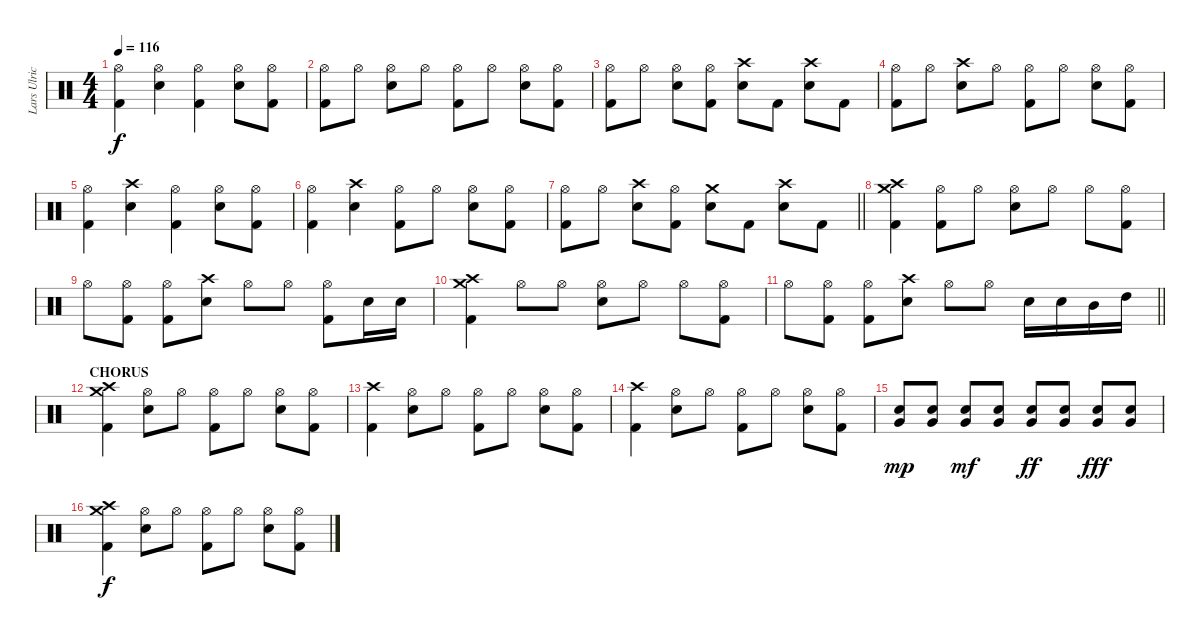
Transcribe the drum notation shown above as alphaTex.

\track ("Lars Ulrich - drums" "Lars Ulric") {instrument percussion}
\staff {score}
\articulation defaults
\ts (4 4)
\tempo 116
\clef neutral
\ks c
("Hi-Hat (open)" "Kick (hit) 2").4{dy f} ("Hi-Hat (open)" "Snare (hit) 2").4 ("Hi-Hat (open)" "Kick (hit) 2").4 ("Hi-Hat (open)" "Snare (hit) 2").8 ("Hi-Hat (open)" "Kick (hit) 2").8 |
("Hi-Hat (open)" "Kick (hit) 2").8 "Hi-Hat (open)".8 ("Hi-Hat (open)" "Snare (hit) 2").8 "Hi-Hat (open)".8 ("Hi-Hat (open)" "Kick (hit) 2").8 "Hi-Hat (open)".8 ("Hi-Hat (open)" "Snare (hit) 2").8 ("Hi-Hat (open)" "Kick (hit) 2").8 |
("Hi-Hat (open)" "Kick (hit) 2").8 "Hi-Hat (open)".8 ("Hi-Hat (open)" "Snare (hit) 2").8 ("Hi-Hat (open)" "Kick (hit) 2").8 ("Crash high (hit)" "Snare (hit) 2").8 "Kick (hit) 2".8 ("Crash high (hit)" "Snare (hit) 2").8 "Kick (hit) 2".8 |
("Hi-Hat (open)" "Kick (hit) 2").8 "Hi-Hat (open)".8 ("Crash high (hit)" "Snare (hit) 2").8 "Hi-Hat (open)".8 ("Hi-Hat (open)" "Kick (hit) 2").8 "Hi-Hat (open)".8 ("Hi-Hat (open)" "Snare (hit) 2").8 ("Hi-Hat (open)" "Kick (hit) 2").8 |
("Hi-Hat (open)" "Kick (hit) 2").4 ("Crash high (hit)" "Snare (hit) 2").4 ("Hi-Hat (open)" "Kick (hit) 2").4 ("Hi-Hat (open)" "Snare (hit) 2").8 ("Hi-Hat (open)" "Kick (hit) 2").8 |
("Hi-Hat (open)" "Kick (hit) 2").4 ("Crash high (hit)" "Snare (hit) 2").4 ("Hi-Hat (open)" "Kick (hit) 2").8 "Hi-Hat (open)".8 ("Hi-Hat (open)" "Snare (hit) 2").8 ("Hi-Hat (open)" "Kick (hit) 2").8 |
\barLineRight lightlight
("Hi-Hat (open)" "Kick (hit) 2").8 "Hi-Hat (open)".8 ("Crash high (hit)" "Snare (hit) 2").8 ("Hi-Hat (open)" "Kick (hit) 2").8 ("Crash medium (hit)" "Snare (hit) 2").8 "Kick (hit) 2".8 ("Crash high (hit)" "Snare (hit) 2").8 "Kick (hit) 2".8 |
\section ("" "")
("Crash high (hit)" "Crash medium (hit)" "Kick (hit) 2").4 ("Hi-Hat (open)" "Kick (hit) 2").8 "Hi-Hat (open)".8 ("Hi-Hat (open)" "Snare (hit) 2").8 "Hi-Hat (open)".8 "Hi-Hat (open)".8 ("Hi-Hat (open)" "Kick (hit) 2").8 |
"Hi-Hat (open)".8 ("Hi-Hat (open)" "Kick (hit) 2").8 ("Hi-Hat (open)" "Kick (hit) 2").8 ("Crash high (hit)" "Snare (hit) 2").8 "Hi-Hat (open)".8 "Hi-Hat (open)".8 ("Hi-Hat (open)" "Kick (hit) 2").8 "Snare (hit) 2".16 "Snare (hit) 2".16 |
("Crash high (hit)" "Crash medium (hit)" "Kick (hit) 2").4 "Hi-Hat (open)".8 "Hi-Hat (open)".8 ("Hi-Hat (open)" "Snare (hit) 2").8 "Hi-Hat (open)".8 "Hi-Hat (open)".8 ("Hi-Hat (open)" "Kick (hit) 2").8 |
\barLineRight lightlight "Hi-Hat (open)".8
("Hi-Hat (open)" "Kick (hit) 2").8 ("Hi-Hat (open)" "Kick (hit) 2").8 ("Crash high (hit)" "Snare (hit) 2").8 "Hi-Hat (open)".8 "Hi-Hat (open)".8 "Snare (hit) 2".16 "Snare (hit) 2".16 "Mid Tom (hit)".16 "High Tom (hit)".16 |
\section ("" "CHORUS")
("Crash high (hit)" "Crash medium (hit)" "Kick (hit) 2").4 ("Hi-Hat (open)" "Snare (hit) 2").8 "Hi-Hat (open)".8 ("Hi-Hat (open)" "Kick (hit) 2").8 "Hi-Hat (open)".8 ("Hi-Hat (open)" "Snare (hit) 2").8 ("Hi-Hat (open)" "Kick (hit) 2").8 |
("Crash high (hit)" "Kick (hit) 2").4 ("Hi-Hat (open)" "Snare (hit) 2").8 "Hi-Hat (open)".8 ("Hi-Hat (open)" "Kick (hit) 2").8 "Hi-Hat (open)".8 ("Hi-Hat (open)" "Snare (hit) 2").8 ("Hi-Hat (open)" "Kick (hit) 2").8 |
("Crash high (hit)" "Kick (hit) 2").4 ("Hi-Hat (open)" "Snare (hit) 2").8 "Hi-Hat (open)".8 ("Hi-Hat (open)" "Kick (hit) 2").8 "Hi-Hat (open)".8 ("Hi-Hat (open)" "Snare (hit) 2").8 ("Hi-Hat (open)" "Kick (hit) 2").8 |
("Very Low Tom (hit)" "Snare (hit) 2").8{dy mp} ("Very Low Tom (hit)" "Snare (hit) 2").8 ("Very Low Tom (hit)" "Snare (hit) 2").8{dy mf} ("Very Low Tom (hit)" "Snare (hit) 2").8 ("Very Low Tom (hit)" "Snare (hit) 2").8{dy ff} ("Very Low Tom (hit)" "Snare (hit) 2").8 ("Very Low Tom (hit)" "Snare (hit) 2").8{dy fff} ("Very Low Tom (hit)" "Snare (hit) 2").8 |
("Crash high (hit)" "Crash medium (hit)" "Kick (hit) 2").4{dy f} ("Hi-Hat (open)" "Snare (hit) 2").8 "Hi-Hat (open)".8 ("Hi-Hat (open)" "Kick (hit) 2").8 "Hi-Hat (open)".8 ("Hi-Hat (open)" "Snare (hit) 2").8 ("Hi-Hat (open)" "Kick (hit) 2").8
